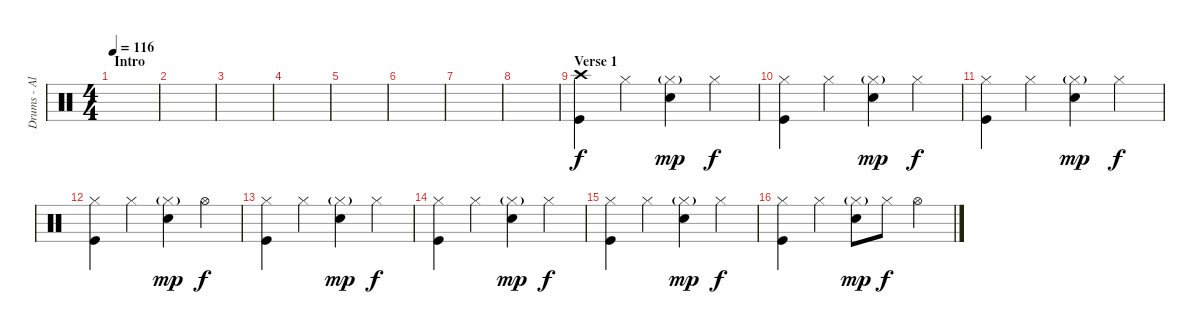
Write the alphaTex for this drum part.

\track ("Drums - Alex Holzwarth" "Drums - Al") {instrument percussion}
\staff {score}
\articulation defaults
\ts (4 4)
\section ("" "Intro")
\tempo 116
\clef neutral
\ks c
|
|
|
|
|
|
|
|
\section ("" "Verse 1")
("Crash high (hit)" "Kick (hit)").4 "Hi-Hat (closed)".4 ("Snare (hit) 2" "Hi-Hat (closed)"{g}).4{dy mp} "Hi-Hat (closed)".4{dy f} |
("Hi-Hat (closed)" "Kick (hit)").4 "Hi-Hat (closed)".4 ("Electric Snare (hit)" "Hi-Hat (closed)"{g}).4{dy mp} "Hi-Hat (closed)".4{dy f} |
("Hi-Hat (closed)" "Kick (hit)").4 "Hi-Hat (closed)".4 ("Electric Snare (hit)" "Hi-Hat (closed)"{g}).4{dy mp} "Hi-Hat (closed)".4{dy f} |
("Hi-Hat (closed)" "Kick (hit)").4 "Hi-Hat (closed)".4 ("Electric Snare (hit)" "Hi-Hat (closed)"{g}).4{dy mp} "Hi-Hat (open)".4{dy f} |
("Hi-Hat (closed)" "Kick (hit)").4 "Hi-Hat (closed)".4 ("Electric Snare (hit)" "Hi-Hat (closed)"{g}).4{dy mp} "Hi-Hat (closed)".4{dy f} |
("Hi-Hat (closed)" "Kick (hit)").4 "Hi-Hat (closed)".4 ("Electric Snare (hit)" "Hi-Hat (closed)"{g}).4{dy mp} "Hi-Hat (closed)".4{dy f} |
("Hi-Hat (closed)" "Kick (hit)").4 "Hi-Hat (closed)".4 ("Electric Snare (hit)" "Hi-Hat (closed)"{g}).4{dy mp} "Hi-Hat (closed)".4{dy f} |
("Hi-Hat (closed)" "Kick (hit)").4 "Hi-Hat (closed)".4 ("Electric Snare (hit)" "Hi-Hat (closed)"{g}).8{dy mp} "Hi-Hat (closed)".8{dy f} "Hi-Hat (open)".4
